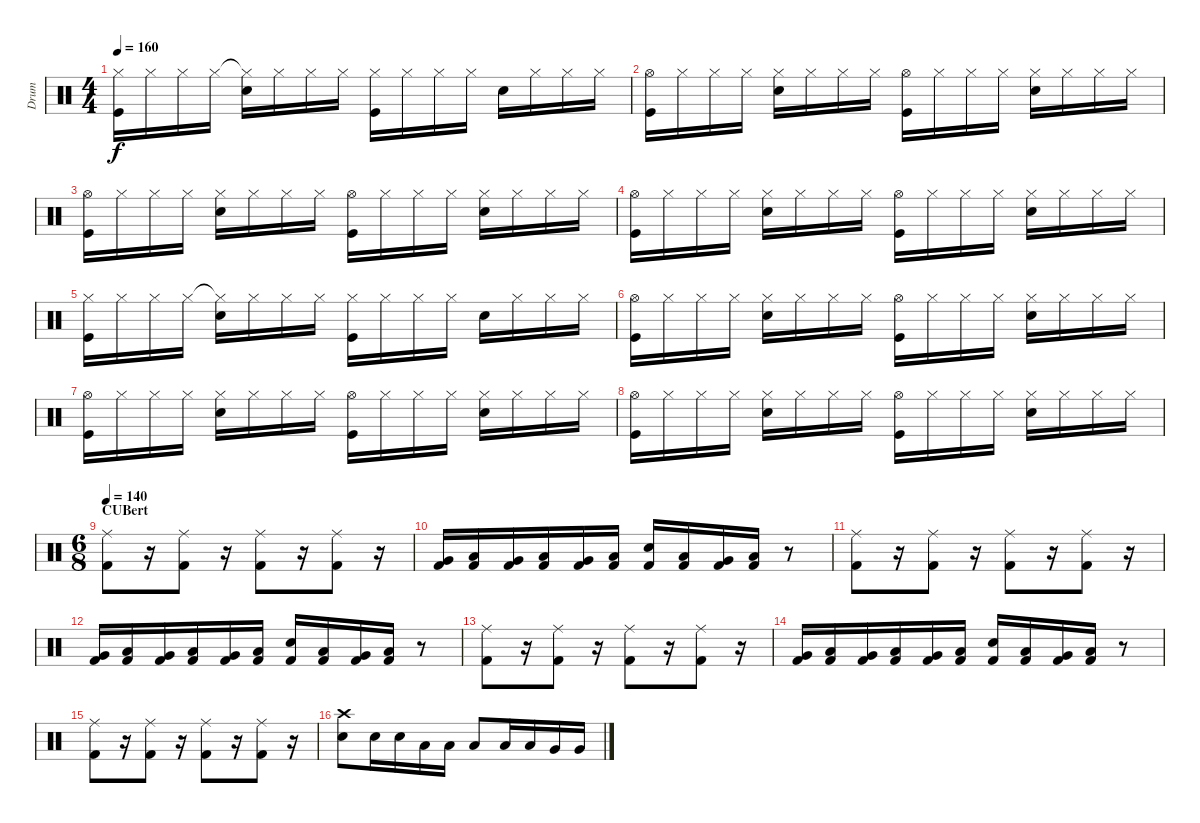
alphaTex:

\track ("Drum" "Drum") {instrument percussion}
\staff {score}
\articulation defaults
\ts (4 4)
\tempo 160
\clef neutral
\ks c
("Hi-Hat (closed)" "Kick (hit)").16{dy f} "Hi-Hat (closed)".16 "Hi-Hat (closed)".16 "Hi-Hat (closed)".16 ("Hi-Hat (closed)"{t} "Electric Snare (hit)").16 "Hi-Hat (closed)".16 "Hi-Hat (closed)".16 "Hi-Hat (closed)".16 ("Hi-Hat (closed)" "Kick (hit)").16 "Hi-Hat (closed)".16 "Hi-Hat (closed)".16 "Hi-Hat (closed)".16 "Electric Snare (hit)".16 "Hi-Hat (closed)".16 "Hi-Hat (closed)".16 "Hi-Hat (closed)".16 |
("Hi-Hat (open)" "Kick (hit)").16 "Hi-Hat (closed)".16 "Hi-Hat (closed)".16 "Hi-Hat (closed)".16 ("Hi-Hat (closed)" "Electric Snare (hit)").16 "Hi-Hat (closed)".16 "Hi-Hat (closed)".16 "Hi-Hat (closed)".16 ("Hi-Hat (open)" "Kick (hit)").16 "Hi-Hat (closed)".16 "Hi-Hat (closed)".16 "Hi-Hat (closed)".16 ("Hi-Hat (closed)" "Electric Snare (hit)").16 "Hi-Hat (closed)".16 "Hi-Hat (closed)".16 "Hi-Hat (closed)".16 |
("Hi-Hat (open)" "Kick (hit)").16 "Hi-Hat (closed)".16 "Hi-Hat (closed)".16 "Hi-Hat (closed)".16 ("Hi-Hat (closed)" "Electric Snare (hit)").16 "Hi-Hat (closed)".16 "Hi-Hat (closed)".16 "Hi-Hat (closed)".16 ("Hi-Hat (open)" "Kick (hit)").16 "Hi-Hat (closed)".16 "Hi-Hat (closed)".16 "Hi-Hat (closed)".16 ("Hi-Hat (closed)" "Electric Snare (hit)").16 "Hi-Hat (closed)".16 "Hi-Hat (closed)".16 "Hi-Hat (closed)".16 |
("Hi-Hat (open)" "Kick (hit)").16 "Hi-Hat (closed)".16 "Hi-Hat (closed)".16 "Hi-Hat (closed)".16 ("Hi-Hat (closed)" "Electric Snare (hit)").16 "Hi-Hat (closed)".16 "Hi-Hat (closed)".16 "Hi-Hat (closed)".16 ("Hi-Hat (open)" "Kick (hit)").16 "Hi-Hat (closed)".16 "Hi-Hat (closed)".16 "Hi-Hat (closed)".16 ("Hi-Hat (closed)" "Electric Snare (hit)").16 "Hi-Hat (closed)".16 "Hi-Hat (closed)".16 "Hi-Hat (closed)".16 |
("Hi-Hat (closed)" "Kick (hit)").16 "Hi-Hat (closed)".16 "Hi-Hat (closed)".16 "Hi-Hat (closed)".16 ("Hi-Hat (closed)"{t} "Electric Snare (hit)").16 "Hi-Hat (closed)".16 "Hi-Hat (closed)".16 "Hi-Hat (closed)".16 ("Hi-Hat (closed)" "Kick (hit)").16 "Hi-Hat (closed)".16 "Hi-Hat (closed)".16 "Hi-Hat (closed)".16 "Electric Snare (hit)".16 "Hi-Hat (closed)".16 "Hi-Hat (closed)".16 "Hi-Hat (closed)".16 |
("Hi-Hat (open)" "Kick (hit)").16 "Hi-Hat (closed)".16 "Hi-Hat (closed)".16 "Hi-Hat (closed)".16 ("Hi-Hat (closed)" "Electric Snare (hit)").16 "Hi-Hat (closed)".16 "Hi-Hat (closed)".16 "Hi-Hat (closed)".16 ("Hi-Hat (open)" "Kick (hit)").16 "Hi-Hat (closed)".16 "Hi-Hat (closed)".16 "Hi-Hat (closed)".16 ("Hi-Hat (closed)" "Electric Snare (hit)").16 "Hi-Hat (closed)".16 "Hi-Hat (closed)".16 "Hi-Hat (closed)".16 |
("Hi-Hat (open)" "Kick (hit)").16 "Hi-Hat (closed)".16 "Hi-Hat (closed)".16 "Hi-Hat (closed)".16 ("Hi-Hat (closed)" "Electric Snare (hit)").16 "Hi-Hat (closed)".16 "Hi-Hat (closed)".16 "Hi-Hat (closed)".16 ("Hi-Hat (open)" "Kick (hit)").16 "Hi-Hat (closed)".16 "Hi-Hat (closed)".16 "Hi-Hat (closed)".16 ("Hi-Hat (closed)" "Electric Snare (hit)").16 "Hi-Hat (closed)".16 "Hi-Hat (closed)".16 "Hi-Hat (closed)".16 |
("Hi-Hat (open)" "Kick (hit)").16 "Hi-Hat (closed)".16 "Hi-Hat (closed)".16 "Hi-Hat (closed)".16 ("Hi-Hat (closed)" "Electric Snare (hit)").16 "Hi-Hat (closed)".16 "Hi-Hat (closed)".16 "Hi-Hat (closed)".16 ("Hi-Hat (open)" "Kick (hit)").16 "Hi-Hat (closed)".16 "Hi-Hat (closed)".16 "Hi-Hat (closed)".16 ("Hi-Hat (closed)" "Electric Snare (hit)").16 "Hi-Hat (closed)".16 "Hi-Hat (closed)".16 "Hi-Hat (closed)".16 |
\ts (6 8)
\section ("" "CUBert")
\tempo 140
("Ride (middle)" "Kick (hit) 2").8 r.16 ("Ride (middle)" "Kick (hit) 2").8 r.16 ("Ride (middle)" "Kick (hit) 2").8 r.16 ("Ride (middle)" "Kick (hit) 2").8 r.16 |
("Very Low Tom (hit)" "Kick (hit) 2").16 ("Low Tom (hit)" "Kick (hit) 2").16 ("Very Low Tom (hit)" "Kick (hit) 2").16 ("Low Tom (hit)" "Kick (hit) 2").16 ("Very Low Tom (hit)" "Kick (hit) 2").16 ("Low Tom (hit)" "Kick (hit) 2").16 ("Electric Snare (hit)" "Kick (hit) 2").16 ("Low Tom (hit)" "Kick (hit) 2").16 ("Very Low Tom (hit)" "Kick (hit) 2").16 ("Low Tom (hit)" "Kick (hit) 2").16 r.8 |
("Ride (middle)" "Kick (hit) 2").8 r.16 ("Ride (middle)" "Kick (hit) 2").8 r.16 ("Ride (middle)" "Kick (hit) 2").8 r.16 ("Ride (middle)" "Kick (hit) 2").8 r.16 |
("Very Low Tom (hit)" "Kick (hit) 2").16 ("Low Tom (hit)" "Kick (hit) 2").16 ("Very Low Tom (hit)" "Kick (hit) 2").16 ("Low Tom (hit)" "Kick (hit) 2").16 ("Very Low Tom (hit)" "Kick (hit) 2").16 ("Low Tom (hit)" "Kick (hit) 2").16 ("Electric Snare (hit)" "Kick (hit) 2").16 ("Low Tom (hit)" "Kick (hit) 2").16 ("Very Low Tom (hit)" "Kick (hit) 2").16 ("Low Tom (hit)" "Kick (hit) 2").16 r.8 |
("Ride (middle)" "Kick (hit) 2").8 r.16 ("Ride (middle)" "Kick (hit) 2").8 r.16 ("Ride (middle)" "Kick (hit) 2").8 r.16 ("Ride (middle)" "Kick (hit) 2").8 r.16 |
("Very Low Tom (hit)" "Kick (hit) 2").16 ("Low Tom (hit)" "Kick (hit) 2").16 ("Very Low Tom (hit)" "Kick (hit) 2").16 ("Low Tom (hit)" "Kick (hit) 2").16 ("Very Low Tom (hit)" "Kick (hit) 2").16 ("Low Tom (hit)" "Kick (hit) 2").16 ("Electric Snare (hit)" "Kick (hit) 2").16 ("Low Tom (hit)" "Kick (hit) 2").16 ("Very Low Tom (hit)" "Kick (hit) 2").16 ("Low Tom (hit)" "Kick (hit) 2").16 r.8 |
("Ride (middle)" "Kick (hit) 2").8 r.16 ("Ride (middle)" "Kick (hit) 2").8 r.16 ("Ride (middle)" "Kick (hit) 2").8 r.16 ("Ride (middle)" "Kick (hit) 2").8 r.16 |
("Crash high (hit)" "Electric Snare (hit)").8 "Electric Snare (hit)".16 "Electric Snare (hit)".16 "Low Tom (hit)".16 "Low Tom (hit)".16 "Low Tom (hit)".8 "Low Tom (hit)".16 "Low Tom (hit)".16 "Very Low Tom (hit)".16 "Very Low Tom (hit)".16
